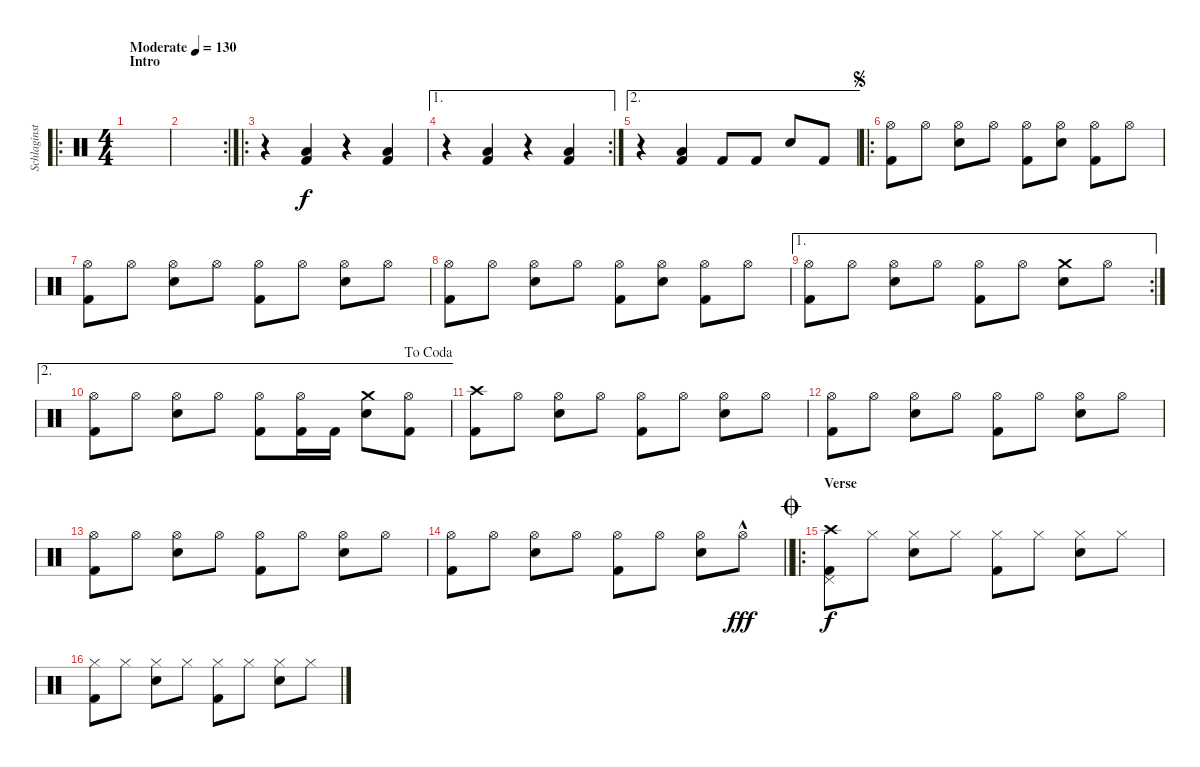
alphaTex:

\track ("Schlaginstrumente - Auswahl" "Schlaginst") {instrument percussion}
\staff {score}
\articulation defaults
\ro
\ts (4 4)
\section ("" "Intro")
\tempo (130 "Moderate")
\clef neutral
\ks c
|
\rc 2
|
\ro
r.4 ("Low Floor Tom (hit)" "Kick (hit) 2").4 r.4 ("Low Floor Tom (hit)" "Kick (hit) 2").4 |
\ae 1
\rc 2
r.4 ("Low Floor Tom (hit)" "Kick (hit) 2").4 r.4 ("Low Floor Tom (hit)" "Kick (hit) 2").4 |
\ae 2
r.4 ("Low Floor Tom (hit)" "Kick (hit) 2").4 "Kick (hit) 2".8 "Kick (hit) 2".8 "Snare (hit) 2".8 "Kick (hit) 2".8 |
\ro
\jump segno
("Hi-Hat (open)" "Kick (hit) 2").8 "Hi-Hat (open)".8 ("Hi-Hat (open)" "Snare (hit) 2").8 "Hi-Hat (open)".8 ("Hi-Hat (open)" "Kick (hit) 2").8 ("Hi-Hat (open)" "Snare (hit) 2").8 ("Hi-Hat (open)" "Kick (hit) 2").8 "Hi-Hat (open)".8 |
("Hi-Hat (open)" "Kick (hit) 2").8 "Hi-Hat (open)".8 ("Hi-Hat (open)" "Snare (hit) 2").8 "Hi-Hat (open)".8 ("Hi-Hat (open)" "Kick (hit) 2").8 "Hi-Hat (open)".8 ("Hi-Hat (open)" "Snare (hit) 2").8 "Hi-Hat (open)".8 |
("Hi-Hat (open)" "Kick (hit) 2").8 "Hi-Hat (open)".8 ("Hi-Hat (open)" "Snare (hit) 2").8 "Hi-Hat (open)".8 ("Hi-Hat (open)" "Kick (hit) 2").8 ("Hi-Hat (open)" "Snare (hit) 2").8 ("Hi-Hat (open)" "Kick (hit) 2").8 "Hi-Hat (open)".8 |
\ae 1
\rc 2
("Hi-Hat (open)" "Kick (hit) 2").8 "Hi-Hat (open)".8 ("Hi-Hat (open)" "Snare (hit) 2").8 "Hi-Hat (open)".8 ("Hi-Hat (open)" "Kick (hit) 2").8 "Hi-Hat (open)".8 ("Crash medium (hit)" "Snare (hit) 2").8 "Hi-Hat (open)".8 |
\ae 2
\jump dacoda
("Hi-Hat (open)" "Kick (hit) 2").8 "Hi-Hat (open)".8 ("Hi-Hat (open)" "Snare (hit) 2").8 "Hi-Hat (open)".8 ("Hi-Hat (open)" "Kick (hit) 2").8 ("Hi-Hat (open)" "Kick (hit) 2").16 "Kick (hit) 2".16 ("Crash medium (hit)" "Snare (hit) 2").8 ("Hi-Hat (open)" "Kick (hit) 2").8 |
("Crash high (hit)" "Kick (hit) 2").8 "Hi-Hat (open)".8 ("Hi-Hat (open)" "Snare (hit) 2").8 "Hi-Hat (open)".8 ("Hi-Hat (open)" "Kick (hit) 2").8 "Hi-Hat (open)".8 ("Hi-Hat (open)" "Snare (hit) 2").8 "Hi-Hat (open)".8 |
("Hi-Hat (open)" "Kick (hit) 2").8 "Hi-Hat (open)".8 ("Hi-Hat (open)" "Snare (hit) 2").8 "Hi-Hat (open)".8 ("Hi-Hat (open)" "Kick (hit) 2").8 "Hi-Hat (open)".8 ("Hi-Hat (open)" "Snare (hit) 2").8 "Hi-Hat (open)".8 |
("Hi-Hat (open)" "Kick (hit) 2").8 "Hi-Hat (open)".8 ("Hi-Hat (open)" "Snare (hit) 2").8 "Hi-Hat (open)".8 ("Hi-Hat (open)" "Kick (hit) 2").8 "Hi-Hat (open)".8 ("Hi-Hat (open)" "Snare (hit) 2").8 "Hi-Hat (open)".8 |
\barLineRight lightlight
("Hi-Hat (open)" "Kick (hit) 2").8 "Hi-Hat (open)".8 ("Hi-Hat (open)" "Snare (hit) 2").8 "Hi-Hat (open)".8 ("Hi-Hat (open)" "Kick (hit) 2").8 "Hi-Hat (open)".8 ("Hi-Hat (open)" "Snare (hit) 2").8 "Hi-Hat (open)"{hac}.8{dy fff} |
\ro
\section ("" "Verse")
\jump coda
("Pedal Hi-Hat (hit)" "Crash high (hit)" "Kick (hit) 2").8{dy f} "Hi-Hat (closed)".8 ("Hi-Hat (closed)" "Snare (hit) 2").8 "Hi-Hat (closed)".8 ("Hi-Hat (closed)" "Kick (hit) 2").8 "Hi-Hat (closed)".8 ("Hi-Hat (closed)" "Snare (hit) 2").8 "Hi-Hat (closed)".8 |
("Hi-Hat (closed)" "Kick (hit) 2").8 "Hi-Hat (closed)".8 ("Hi-Hat (closed)" "Snare (hit) 2").8 "Hi-Hat (closed)".8 ("Hi-Hat (closed)" "Kick (hit) 2").8 "Hi-Hat (closed)".8 ("Hi-Hat (closed)" "Snare (hit) 2").8 "Hi-Hat (closed)".8
